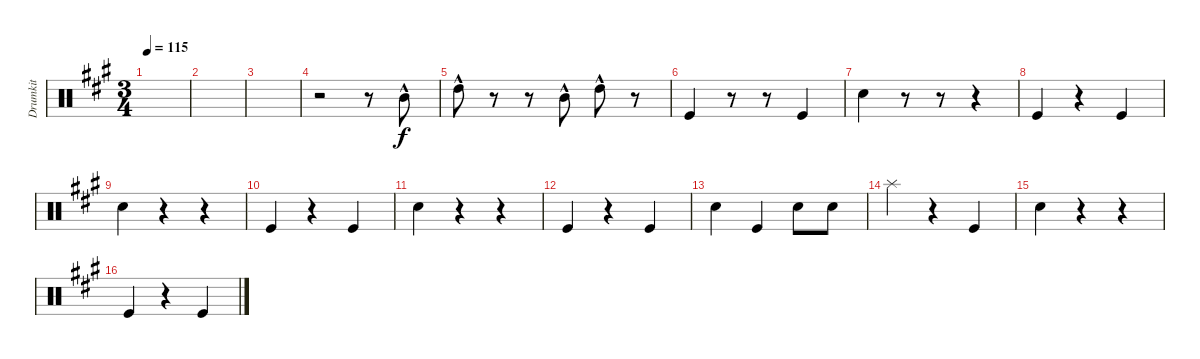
\track ("Drumkit" "Drumkit") {instrument percussion}
\staff {score}
\articulation defaults
\ts (3 4)
\tempo 115
\clef neutral
\ks a
|
|
|
r.2 r.8 "Mid Tom (hit)"{hac}.8 |
"High Tom (hit)"{hac}.8 r.8 r.8 "Mid Tom (hit)"{hac}.8 "High Tom (hit)"{hac}.8 r.8 |
"Kick (hit)".4 r.8 r.8 "Kick (hit)".4 |
"Snare (hit) 2".4 r.8 r.8 r.4 |
"Kick (hit)".4 r.4 "Kick (hit)".4 |
"Snare (hit) 2".4 r.4 r.4 |
"Kick (hit)".4 r.4 "Kick (hit)".4 |
"Snare (hit) 2".4 r.4 r.4 |
"Kick (hit)".4 r.4 "Kick (hit)".4 |
"Snare (hit) 2".4 "Kick (hit)".4 "Snare (hit) 2".8 "Snare (hit) 2".8 |
"Splash (hit)".4 r.4 "Kick (hit)".4 |
"Snare (hit) 2".4 r.4 r.4 |
"Kick (hit)".4 r.4 "Kick (hit)".4
